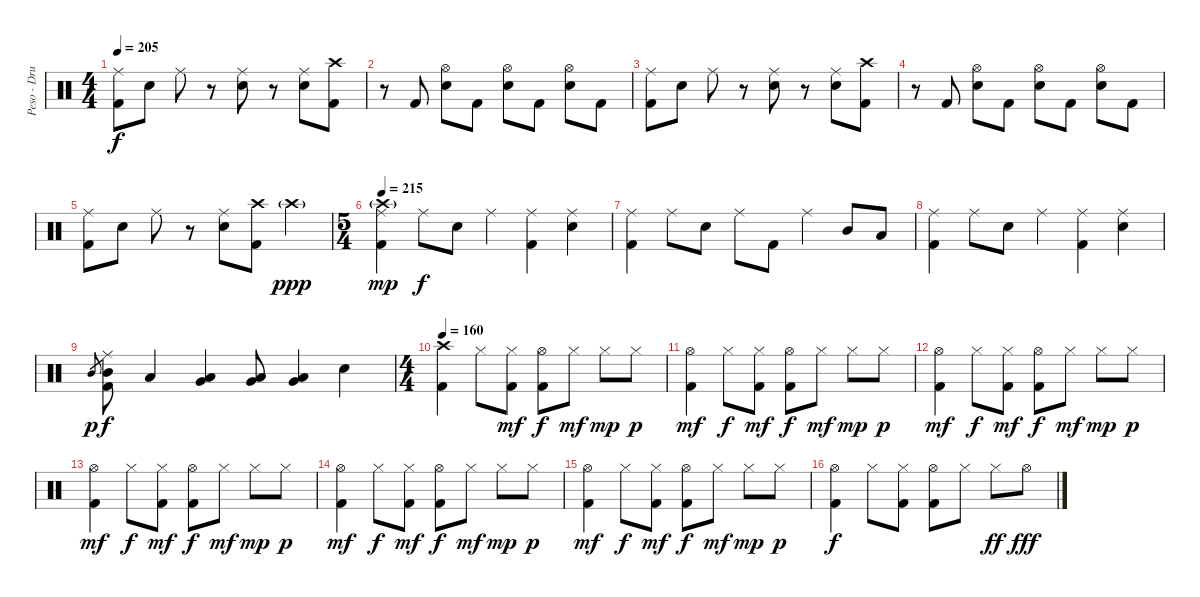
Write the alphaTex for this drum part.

\track ("Peso - Drums" "Peso - Dru") {instrument percussion}
\staff {score}
\articulation defaults
\ts (4 4)
\tempo 205
\clef neutral
\ks c
("Ride (middle)" "Kick (hit) 2").8{dy f} "Electric Snare (hit)".8 "Ride (middle)".8 r.8 ("Ride (middle)" "Electric Snare (hit)").8 r.8 ("Ride (middle)" "Electric Snare (hit)").8 ("Crash high (hit)" "Kick (hit) 2").8 |
r.8 "Kick (hit) 2".8 ("Hi-Hat (open)" "Electric Snare (hit)").8 "Kick (hit) 2".8 ("Hi-Hat (open)" "Electric Snare (hit)").8 "Kick (hit) 2".8 ("Hi-Hat (open)" "Electric Snare (hit)").8 "Kick (hit) 2".8 |
("Ride (middle)" "Kick (hit) 2").8 "Electric Snare (hit)".8 "Ride (middle)".8 r.8 ("Ride (middle)" "Electric Snare (hit)").8 r.8 ("Ride (middle)" "Electric Snare (hit)").8 ("Crash high (hit)" "Kick (hit) 2").8 |
r.8 "Kick (hit) 2".8 ("Hi-Hat (open)" "Electric Snare (hit)").8 "Kick (hit) 2".8 ("Hi-Hat (open)" "Electric Snare (hit)").8 "Kick (hit) 2".8 ("Hi-Hat (open)" "Electric Snare (hit)").8 "Kick (hit) 2".8 |
("Ride (middle)" "Kick (hit) 2").8 "Electric Snare (hit)".8 "Ride (middle)".8 r.8 ("Ride (middle)" "Electric Snare (hit)").8 ("Crash high (hit)" "Kick (hit) 2").8 "Crash high (hit)"{g}.4{dy ppp} |
\ts (5 4)
\tempo 215
("Ride (middle)" "Crash high (hit)"{g} "Kick (hit) 2").4{dy mp} "Ride (middle)".8{dy f} "Electric Snare (hit)".8 "Ride (middle)".4 ("Ride (middle)" "Kick (hit) 2").4 ("Ride (middle)" "Electric Snare (hit)").4 |
("Ride (middle)" "Kick (hit) 2").4 "Ride (middle)".8 "Electric Snare (hit)".8 "Ride (middle)".8 "Kick (hit) 2".8 "Ride (middle)".4 "Mid Tom (hit)".8 "Low Tom (hit)".8 |
("Ride (middle)" "Kick (hit) 2").4 "Ride (middle)".8 "Electric Snare (hit)".8 "Ride (middle)".4 ("Ride (middle)" "Kick (hit) 2").4 ("Ride (middle)" "Electric Snare (hit)").4 |
"Mid Tom (hit)".8{gr dy p} ("Ride (middle)" "Mid Tom (hit)" "Kick (hit) 2").8{dy f} "Low Tom (hit)".4 ("Very Low Tom (hit)" "Low Floor Tom (hit)").4 ("Very Low Tom (hit)" "Low Floor Tom (hit)").8 ("Very Low Tom (hit)" "Low Floor Tom (hit)").4 "Electric Snare (hit)".4 |
\ts (4 4)
\tempo 160
("Crash high (hit)" "Kick (hit) 2").4 "Hi-Hat (closed)".8 ("Hi-Hat (closed)" "Kick (hit) 2").8{dy mf} ("Hi-Hat (open)" "Kick (hit) 2").8{dy f} "Hi-Hat (closed)".8{dy mf} "Hi-Hat (closed)".8{dy mp} "Hi-Hat (closed)".8{dy p} |
("Hi-Hat (open)" "Kick (hit) 2").4{dy mf} "Hi-Hat (closed)".8{dy f} ("Hi-Hat (closed)" "Kick (hit) 2").8{dy mf} ("Hi-Hat (open)" "Kick (hit) 2").8{dy f} "Hi-Hat (closed)".8{dy mf} "Hi-Hat (closed)".8{dy mp} "Hi-Hat (closed)".8{dy p} |
("Hi-Hat (open)" "Kick (hit) 2").4{dy mf} "Hi-Hat (closed)".8{dy f} ("Hi-Hat (closed)" "Kick (hit) 2").8{dy mf} ("Hi-Hat (open)" "Kick (hit) 2").8{dy f} "Hi-Hat (closed)".8{dy mf} "Hi-Hat (closed)".8{dy mp} "Hi-Hat (closed)".8{dy p} |
("Hi-Hat (open)" "Kick (hit) 2").4{dy mf} "Hi-Hat (closed)".8{dy f} ("Hi-Hat (closed)" "Kick (hit) 2").8{dy mf} ("Hi-Hat (open)" "Kick (hit) 2").8{dy f} "Hi-Hat (closed)".8{dy mf} "Hi-Hat (closed)".8{dy mp} "Hi-Hat (closed)".8{dy p} |
("Hi-Hat (open)" "Kick (hit) 2").4{dy mf} "Hi-Hat (closed)".8{dy f} ("Hi-Hat (closed)" "Kick (hit) 2").8{dy mf} ("Hi-Hat (open)" "Kick (hit) 2").8{dy f} "Hi-Hat (closed)".8{dy mf} "Hi-Hat (closed)".8{dy mp} "Hi-Hat (closed)".8{dy p} |
("Hi-Hat (open)" "Kick (hit) 2").4{dy mf} "Hi-Hat (closed)".8{dy f} ("Hi-Hat (closed)" "Kick (hit) 2").8{dy mf} ("Hi-Hat (open)" "Kick (hit) 2").8{dy f} "Hi-Hat (closed)".8{dy mf} "Hi-Hat (closed)".8{dy mp} "Hi-Hat (closed)".8{dy p} |
("Hi-Hat (open)" "Kick (hit) 2").4{dy f} "Hi-Hat (closed)".8 ("Hi-Hat (closed)" "Kick (hit) 2").8 ("Hi-Hat (open)" "Kick (hit) 2").8 "Hi-Hat (closed)".8 "Hi-Hat (closed)".8{dy ff} "Hi-Hat (open)".8{dy fff}
